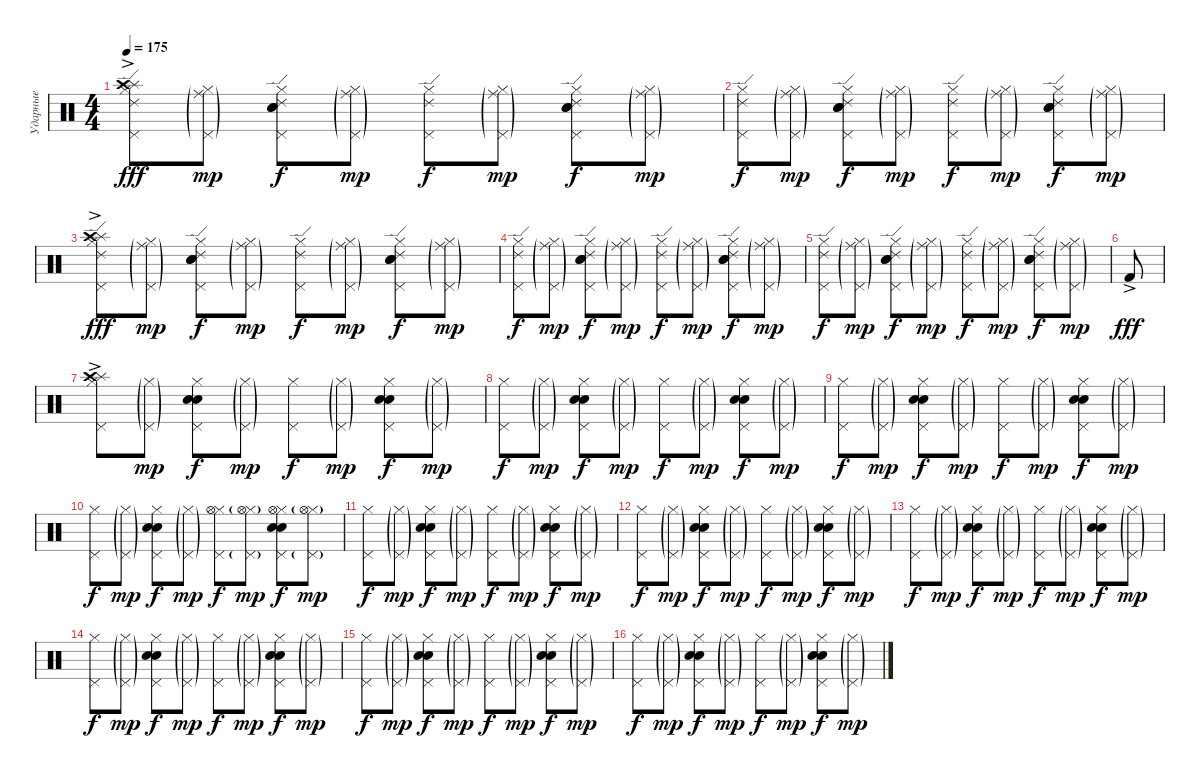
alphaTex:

\track ("Ударные" "Ударные") {instrument percussion}
\staff {score}
\articulation defaults
\ts (4 4)
\tempo 175
\clef neutral
\ks c
("Ride (edge) 2" "Hi-Hat (closed)" "Pedal Hi-Hat (hit)" "Splash (hit)"{ac} "Crash high (hit)"{ac}).8{dy fff} ("Ride (middle)"{g} "Hi-Hat (closed)"{g} "Pedal Hi-Hat (hit)"{g}).8{dy mp} ("Ride (edge) 2" "Hi-Hat (closed)" "Pedal Hi-Hat (hit)" "Snare (hit) 2" "Electric Snare (hit)").8{dy f} ("Ride (middle)"{g} "Hi-Hat (closed)"{g} "Pedal Hi-Hat (hit)"{g}).8{dy mp} ("Ride (edge) 2" "Hi-Hat (closed)" "Pedal Hi-Hat (hit)").8{dy f} ("Ride (middle)"{g} "Hi-Hat (closed)"{g} "Pedal Hi-Hat (hit)"{g}).8{dy mp} ("Ride (edge) 2" "Hi-Hat (closed)" "Pedal Hi-Hat (hit)" "Snare (hit) 2" "Electric Snare (hit)").8{dy f} ("Ride (middle)"{g} "Hi-Hat (closed)"{g} "Pedal Hi-Hat (hit)"{g}).8{dy mp} |
("Ride (edge) 2" "Hi-Hat (closed)" "Pedal Hi-Hat (hit)").8{dy f} ("Ride (middle)"{g} "Hi-Hat (closed)"{g} "Pedal Hi-Hat (hit)"{g}).8{dy mp} ("Ride (edge) 2" "Hi-Hat (closed)" "Pedal Hi-Hat (hit)" "Snare (hit) 2" "Electric Snare (hit)").8{dy f} ("Ride (middle)"{g} "Hi-Hat (closed)"{g} "Pedal Hi-Hat (hit)"{g}).8{dy mp} ("Ride (edge) 2" "Hi-Hat (closed)" "Pedal Hi-Hat (hit)").8{dy f} ("Ride (middle)"{g} "Hi-Hat (closed)"{g} "Pedal Hi-Hat (hit)"{g}).8{dy mp} ("Ride (edge) 2" "Hi-Hat (closed)" "Pedal Hi-Hat (hit)" "Snare (hit) 2" "Electric Snare (hit)").8{dy f} ("Ride (middle)"{g} "Hi-Hat (closed)"{g} "Pedal Hi-Hat (hit)"{g}).8{dy mp} |
("Ride (edge) 2" "Hi-Hat (closed)" "Pedal Hi-Hat (hit)" "Splash (hit)"{ac} "Crash high (hit)"{ac}).8{dy fff} ("Ride (middle)"{g} "Hi-Hat (closed)"{g} "Pedal Hi-Hat (hit)"{g}).8{dy mp} ("Ride (edge) 2" "Hi-Hat (closed)" "Pedal Hi-Hat (hit)" "Snare (hit) 2" "Electric Snare (hit)").8{dy f} ("Ride (middle)"{g} "Hi-Hat (closed)"{g} "Pedal Hi-Hat (hit)"{g}).8{dy mp} ("Ride (edge) 2" "Hi-Hat (closed)" "Pedal Hi-Hat (hit)").8{dy f} ("Ride (middle)"{g} "Hi-Hat (closed)"{g} "Pedal Hi-Hat (hit)"{g}).8{dy mp} ("Ride (edge) 2" "Hi-Hat (closed)" "Pedal Hi-Hat (hit)" "Snare (hit) 2" "Electric Snare (hit)").8{dy f} ("Ride (middle)"{g} "Hi-Hat (closed)"{g} "Pedal Hi-Hat (hit)"{g}).8{dy mp} |
("Ride (edge) 2" "Hi-Hat (closed)" "Pedal Hi-Hat (hit)").8{dy f} ("Ride (middle)"{g} "Hi-Hat (closed)"{g} "Pedal Hi-Hat (hit)"{g}).8{dy mp} ("Ride (edge) 2" "Hi-Hat (closed)" "Pedal Hi-Hat (hit)" "Snare (hit) 2" "Electric Snare (hit)").8{dy f} ("Ride (middle)"{g} "Hi-Hat (closed)"{g} "Pedal Hi-Hat (hit)"{g}).8{dy mp} ("Ride (edge) 2" "Hi-Hat (closed)" "Pedal Hi-Hat (hit)").8{dy f} ("Ride (middle)"{g} "Hi-Hat (closed)"{g} "Pedal Hi-Hat (hit)"{g}).8{dy mp} ("Ride (edge) 2" "Hi-Hat (closed)" "Pedal Hi-Hat (hit)" "Snare (hit) 2" "Electric Snare (hit)").8{dy f} ("Ride (middle)"{g} "Hi-Hat (closed)"{g} "Pedal Hi-Hat (hit)"{g}).8{dy mp} |
("Ride (edge) 2" "Hi-Hat (closed)" "Pedal Hi-Hat (hit)").8{dy f} ("Ride (middle)"{g} "Hi-Hat (closed)"{g} "Pedal Hi-Hat (hit)"{g}).8{dy mp} ("Ride (edge) 2" "Hi-Hat (closed)" "Pedal Hi-Hat (hit)" "Snare (hit) 2" "Electric Snare (hit)").8{dy f} ("Ride (middle)"{g} "Hi-Hat (closed)"{g} "Pedal Hi-Hat (hit)"{g}).8{dy mp} ("Ride (edge) 2" "Hi-Hat (closed)" "Pedal Hi-Hat (hit)").8{dy f} ("Ride (middle)"{g} "Hi-Hat (closed)"{g} "Pedal Hi-Hat (hit)"{g}).8{dy mp} ("Ride (edge) 2" "Hi-Hat (closed)" "Pedal Hi-Hat (hit)" "Snare (hit) 2" "Electric Snare (hit)").8{dy f} ("Ride (middle)"{g} "Hi-Hat (closed)"{g} "Pedal Hi-Hat (hit)"{g}).8{dy mp} |
"Kick (hit) 2"{ac}.8{dy fff} |
("Hi-Hat (closed)" "Pedal Hi-Hat (hit)" "Splash (hit)"{ac} "Crash high (hit)"{ac}).8 ("Hi-Hat (closed)"{g} "Pedal Hi-Hat (hit)"{g}).8{dy mp} ("Hi-Hat (closed)" "Pedal Hi-Hat (hit)" "Snare (hit) 2" "Electric Snare (hit)").8{dy f} ("Hi-Hat (closed)"{g} "Pedal Hi-Hat (hit)"{g}).8{dy mp} ("Hi-Hat (closed)" "Pedal Hi-Hat (hit)").8{dy f} ("Hi-Hat (closed)"{g} "Pedal Hi-Hat (hit)"{g}).8{dy mp} ("Hi-Hat (closed)" "Pedal Hi-Hat (hit)" "Snare (hit) 2" "Electric Snare (hit)").8{dy f} ("Hi-Hat (closed)"{g} "Pedal Hi-Hat (hit)"{g}).8{dy mp} |
("Hi-Hat (closed)" "Pedal Hi-Hat (hit)").8{dy f} ("Hi-Hat (closed)"{g} "Pedal Hi-Hat (hit)"{g}).8{dy mp} ("Hi-Hat (closed)" "Pedal Hi-Hat (hit)" "Snare (hit) 2" "Electric Snare (hit)").8{dy f} ("Hi-Hat (closed)"{g} "Pedal Hi-Hat (hit)"{g}).8{dy mp} ("Hi-Hat (closed)" "Pedal Hi-Hat (hit)").8{dy f} ("Hi-Hat (closed)"{g} "Pedal Hi-Hat (hit)"{g}).8{dy mp} ("Hi-Hat (closed)" "Pedal Hi-Hat (hit)" "Snare (hit) 2" "Electric Snare (hit)").8{dy f} ("Hi-Hat (closed)"{g} "Pedal Hi-Hat (hit)"{g}).8{dy mp} |
("Hi-Hat (closed)" "Pedal Hi-Hat (hit)").8{dy f} ("Hi-Hat (closed)"{g} "Pedal Hi-Hat (hit)"{g}).8{dy mp} ("Hi-Hat (closed)" "Pedal Hi-Hat (hit)" "Snare (hit) 2" "Electric Snare (hit)").8{dy f} ("Hi-Hat (closed)"{g} "Pedal Hi-Hat (hit)"{g}).8{dy mp} ("Hi-Hat (closed)" "Pedal Hi-Hat (hit)").8{dy f} ("Hi-Hat (closed)"{g} "Pedal Hi-Hat (hit)"{g}).8{dy mp} ("Hi-Hat (closed)" "Pedal Hi-Hat (hit)" "Snare (hit) 2" "Electric Snare (hit)").8{dy f} ("Hi-Hat (closed)"{g} "Pedal Hi-Hat (hit)"{g}).8{dy mp} |
("Hi-Hat (closed)" "Pedal Hi-Hat (hit)").8{dy f} ("Hi-Hat (closed)"{g} "Pedal Hi-Hat (hit)"{g}).8{dy mp} ("Hi-Hat (closed)" "Pedal Hi-Hat (hit)" "Snare (hit) 2" "Electric Snare (hit)").8{dy f} ("Hi-Hat (closed)"{g} "Pedal Hi-Hat (hit)"{g}).8{dy mp} ("Hi-Hat (closed)" "Pedal Hi-Hat (hit)" "Hi-Hat (open)").8{dy f} ("Hi-Hat (closed)"{g} "Pedal Hi-Hat (hit)"{g} "Hi-Hat (open)").8{dy mp} ("Hi-Hat (closed)" "Pedal Hi-Hat (hit)" "Hi-Hat (open)" "Snare (hit) 2" "Electric Snare (hit)").8{dy f} ("Hi-Hat (closed)"{g} "Pedal Hi-Hat (hit)"{g} "Hi-Hat (open)").8{dy mp} |
("Hi-Hat (closed)" "Pedal Hi-Hat (hit)").8{dy f} ("Hi-Hat (closed)"{g} "Pedal Hi-Hat (hit)"{g}).8{dy mp} ("Hi-Hat (closed)" "Pedal Hi-Hat (hit)" "Snare (hit) 2" "Electric Snare (hit)").8{dy f} ("Hi-Hat (closed)"{g} "Pedal Hi-Hat (hit)"{g}).8{dy mp} ("Hi-Hat (closed)" "Pedal Hi-Hat (hit)").8{dy f} ("Hi-Hat (closed)"{g} "Pedal Hi-Hat (hit)"{g}).8{dy mp} ("Hi-Hat (closed)" "Pedal Hi-Hat (hit)" "Snare (hit) 2" "Electric Snare (hit)").8{dy f} ("Hi-Hat (closed)"{g} "Pedal Hi-Hat (hit)"{g}).8{dy mp} |
("Hi-Hat (closed)" "Pedal Hi-Hat (hit)").8{dy f} ("Hi-Hat (closed)"{g} "Pedal Hi-Hat (hit)"{g}).8{dy mp} ("Hi-Hat (closed)" "Pedal Hi-Hat (hit)" "Snare (hit) 2" "Electric Snare (hit)").8{dy f} ("Hi-Hat (closed)"{g} "Pedal Hi-Hat (hit)"{g}).8{dy mp} ("Hi-Hat (closed)" "Pedal Hi-Hat (hit)").8{dy f} ("Hi-Hat (closed)"{g} "Pedal Hi-Hat (hit)"{g}).8{dy mp} ("Hi-Hat (closed)" "Pedal Hi-Hat (hit)" "Snare (hit) 2" "Electric Snare (hit)").8{dy f} ("Hi-Hat (closed)"{g} "Pedal Hi-Hat (hit)"{g}).8{dy mp} |
("Hi-Hat (closed)" "Pedal Hi-Hat (hit)").8{dy f} ("Hi-Hat (closed)"{g} "Pedal Hi-Hat (hit)"{g}).8{dy mp} ("Hi-Hat (closed)" "Pedal Hi-Hat (hit)" "Snare (hit) 2" "Electric Snare (hit)").8{dy f} ("Hi-Hat (closed)"{g} "Pedal Hi-Hat (hit)"{g}).8{dy mp} ("Hi-Hat (closed)" "Pedal Hi-Hat (hit)").8{dy f} ("Hi-Hat (closed)"{g} "Pedal Hi-Hat (hit)"{g}).8{dy mp} ("Hi-Hat (closed)" "Pedal Hi-Hat (hit)" "Snare (hit) 2" "Electric Snare (hit)").8{dy f} ("Hi-Hat (closed)"{g} "Pedal Hi-Hat (hit)"{g}).8{dy mp} |
("Hi-Hat (closed)" "Pedal Hi-Hat (hit)").8{dy f} ("Hi-Hat (closed)"{g} "Pedal Hi-Hat (hit)"{g}).8{dy mp} ("Hi-Hat (closed)" "Pedal Hi-Hat (hit)" "Snare (hit) 2" "Electric Snare (hit)").8{dy f} ("Hi-Hat (closed)"{g} "Pedal Hi-Hat (hit)"{g}).8{dy mp} ("Hi-Hat (closed)" "Pedal Hi-Hat (hit)").8{dy f} ("Hi-Hat (closed)"{g} "Pedal Hi-Hat (hit)"{g}).8{dy mp} ("Hi-Hat (closed)" "Pedal Hi-Hat (hit)" "Snare (hit) 2" "Electric Snare (hit)").8{dy f} ("Hi-Hat (closed)"{g} "Pedal Hi-Hat (hit)"{g}).8{dy mp} |
("Hi-Hat (closed)" "Pedal Hi-Hat (hit)").8{dy f} ("Hi-Hat (closed)"{g} "Pedal Hi-Hat (hit)"{g}).8{dy mp} ("Hi-Hat (closed)" "Pedal Hi-Hat (hit)" "Snare (hit) 2" "Electric Snare (hit)").8{dy f} ("Hi-Hat (closed)"{g} "Pedal Hi-Hat (hit)"{g}).8{dy mp} ("Hi-Hat (closed)" "Pedal Hi-Hat (hit)").8{dy f} ("Hi-Hat (closed)"{g} "Pedal Hi-Hat (hit)"{g}).8{dy mp} ("Hi-Hat (closed)" "Pedal Hi-Hat (hit)" "Snare (hit) 2" "Electric Snare (hit)").8{dy f} ("Hi-Hat (closed)"{g} "Pedal Hi-Hat (hit)"{g}).8{dy mp} |
("Hi-Hat (closed)" "Pedal Hi-Hat (hit)").8{dy f} ("Hi-Hat (closed)"{g} "Pedal Hi-Hat (hit)"{g}).8{dy mp} ("Hi-Hat (closed)" "Pedal Hi-Hat (hit)" "Snare (hit) 2" "Electric Snare (hit)").8{dy f} ("Hi-Hat (closed)"{g} "Pedal Hi-Hat (hit)"{g}).8{dy mp} ("Hi-Hat (closed)" "Pedal Hi-Hat (hit)").8{dy f} ("Hi-Hat (closed)"{g} "Pedal Hi-Hat (hit)"{g}).8{dy mp} ("Hi-Hat (closed)" "Pedal Hi-Hat (hit)" "Snare (hit) 2" "Electric Snare (hit)").8{dy f} ("Hi-Hat (closed)"{g} "Pedal Hi-Hat (hit)"{g}).8{dy mp}
